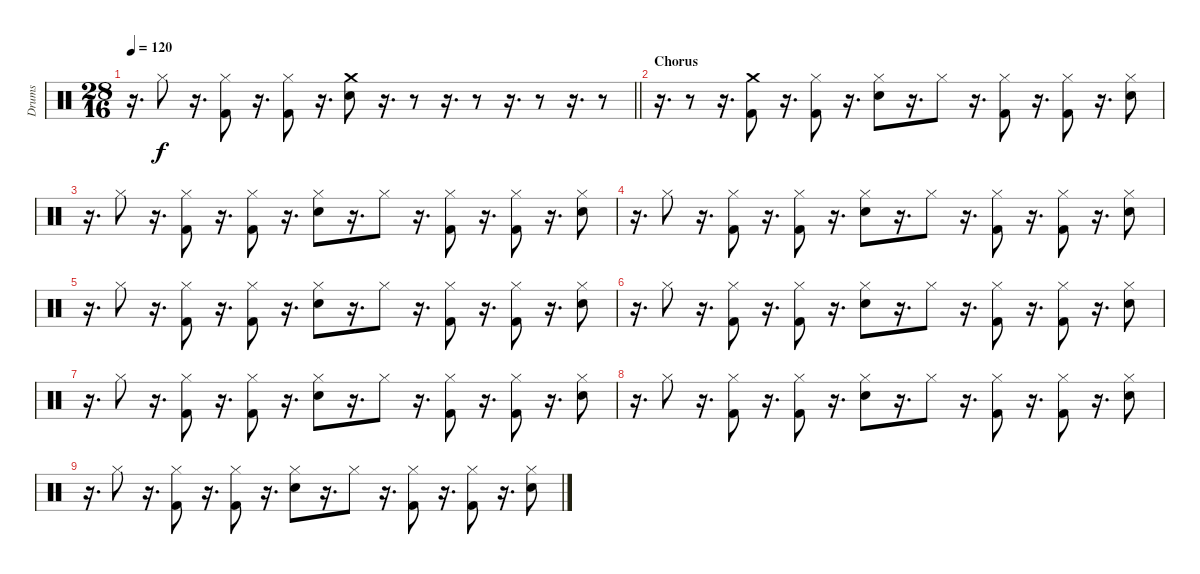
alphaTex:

\track ("Drums" "Drums") {instrument percussion}
\staff {score}
\articulation defaults
\ts (28 16)
\tempo 120
\clef neutral
\barLineRight lightlight
\ks c
r.16{d dy f} "Hi-Hat (closed)".8 r.16{d} ("Hi-Hat (closed)" "Kick (hit) 2").8 r.16{d} ("Hi-Hat (closed)" "Kick (hit) 2").8 r.16{d} ("Crash medium (hit)" "Snare (hit) 2").8 r.16{d} r.8 r.16{d} r.8 r.16{d} r.8 r.16{d} r.8 |
\section ("" "Chorus")
r.16{d} r.8 r.16{d} ("Crash medium (hit)" "Kick (hit) 2").8 r.16{d} ("Hi-Hat (closed)" "Kick (hit) 2").8 r.16{d} ("Hi-Hat (closed)" "Snare (hit) 2").8 r.16{d} "Hi-Hat (closed)".8 r.16{d} ("Hi-Hat (closed)" "Kick (hit) 2").8 r.16{d} ("Hi-Hat (closed)" "Kick (hit) 2").8 r.16{d} ("Hi-Hat (closed)" "Snare (hit) 2").8 |
r.16{d} "Hi-Hat (closed)".8 r.16{d} ("Hi-Hat (closed)" "Kick (hit) 2").8 r.16{d} ("Hi-Hat (closed)" "Kick (hit) 2").8 r.16{d} ("Hi-Hat (closed)" "Snare (hit) 2").8 r.16{d} "Hi-Hat (closed)".8 r.16{d} ("Hi-Hat (closed)" "Kick (hit) 2").8 r.16{d} ("Hi-Hat (closed)" "Kick (hit) 2").8 r.16{d} ("Hi-Hat (closed)" "Snare (hit) 2").8 |
r.16{d} "Hi-Hat (closed)".8 r.16{d} ("Hi-Hat (closed)" "Kick (hit) 2").8 r.16{d} ("Hi-Hat (closed)" "Kick (hit) 2").8 r.16{d} ("Hi-Hat (closed)" "Snare (hit) 2").8 r.16{d} "Hi-Hat (closed)".8 r.16{d} ("Hi-Hat (closed)" "Kick (hit) 2").8 r.16{d} ("Hi-Hat (closed)" "Kick (hit) 2").8 r.16{d} ("Hi-Hat (closed)" "Snare (hit) 2").8 |
r.16{d} "Hi-Hat (closed)".8 r.16{d} ("Hi-Hat (closed)" "Kick (hit) 2").8 r.16{d} ("Hi-Hat (closed)" "Kick (hit) 2").8 r.16{d} ("Hi-Hat (closed)" "Snare (hit) 2").8 r.16{d} "Hi-Hat (closed)".8 r.16{d} ("Hi-Hat (closed)" "Kick (hit) 2").8 r.16{d} ("Hi-Hat (closed)" "Kick (hit) 2").8 r.16{d} ("Hi-Hat (closed)" "Snare (hit) 2").8 |
r.16{d} "Hi-Hat (closed)".8 r.16{d} ("Hi-Hat (closed)" "Kick (hit) 2").8 r.16{d} ("Hi-Hat (closed)" "Kick (hit) 2").8 r.16{d} ("Hi-Hat (closed)" "Snare (hit) 2").8 r.16{d} "Hi-Hat (closed)".8 r.16{d} ("Hi-Hat (closed)" "Kick (hit) 2").8 r.16{d} ("Hi-Hat (closed)" "Kick (hit) 2").8 r.16{d} ("Hi-Hat (closed)" "Snare (hit) 2").8 |
r.16{d} "Hi-Hat (closed)".8 r.16{d} ("Hi-Hat (closed)" "Kick (hit) 2").8 r.16{d} ("Hi-Hat (closed)" "Kick (hit) 2").8 r.16{d} ("Hi-Hat (closed)" "Snare (hit) 2").8 r.16{d} "Hi-Hat (closed)".8 r.16{d} ("Hi-Hat (closed)" "Kick (hit) 2").8 r.16{d} ("Hi-Hat (closed)" "Kick (hit) 2").8 r.16{d} ("Hi-Hat (closed)" "Snare (hit) 2").8 |
r.16{d} "Hi-Hat (closed)".8 r.16{d} ("Hi-Hat (closed)" "Kick (hit) 2").8 r.16{d} ("Hi-Hat (closed)" "Kick (hit) 2").8 r.16{d} ("Hi-Hat (closed)" "Snare (hit) 2").8 r.16{d} "Hi-Hat (closed)".8 r.16{d} ("Hi-Hat (closed)" "Kick (hit) 2").8 r.16{d} ("Hi-Hat (closed)" "Kick (hit) 2").8 r.16{d} ("Hi-Hat (closed)" "Snare (hit) 2").8 |
r.16{d} "Hi-Hat (closed)".8 r.16{d} ("Hi-Hat (closed)" "Kick (hit) 2").8 r.16{d} ("Hi-Hat (closed)" "Kick (hit) 2").8 r.16{d} ("Hi-Hat (closed)" "Snare (hit) 2").8 r.16{d} "Hi-Hat (closed)".8 r.16{d} ("Hi-Hat (closed)" "Kick (hit) 2").8 r.16{d} ("Hi-Hat (closed)" "Kick (hit) 2").8 r.16{d} ("Hi-Hat (closed)" "Snare (hit) 2").8
